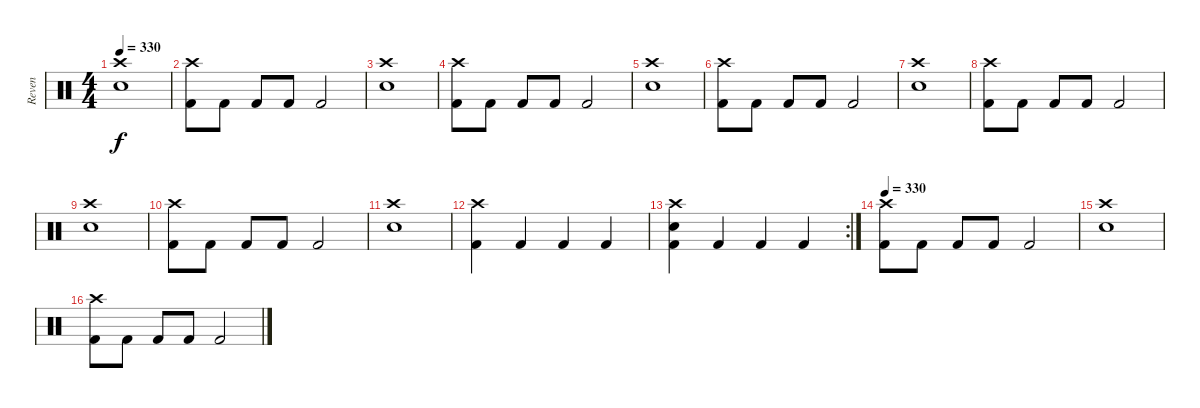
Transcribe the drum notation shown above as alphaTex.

\track ("Reven" "Reven") {instrument percussion}
\staff {score}
\articulation defaults
\ts (4 4)
\tempo 330
\clef neutral
\ks c
("Crash high (hit)" "Electric Snare (hit)").1{dy f} |
("Crash high (hit)" "Kick (hit) 2").8 "Kick (hit) 2".8 "Kick (hit) 2".8 "Kick (hit) 2".8 "Kick (hit) 2".2 |
("Crash high (hit)" "Electric Snare (hit)").1 |
("Crash high (hit)" "Kick (hit) 2").8 "Kick (hit) 2".8 "Kick (hit) 2".8 "Kick (hit) 2".8 "Kick (hit) 2".2 |
("Crash high (hit)" "Electric Snare (hit)").1 |
("Crash high (hit)" "Kick (hit) 2").8 "Kick (hit) 2".8 "Kick (hit) 2".8 "Kick (hit) 2".8 "Kick (hit) 2".2 |
("Crash high (hit)" "Electric Snare (hit)").1 |
("Crash high (hit)" "Kick (hit) 2").8 "Kick (hit) 2".8 "Kick (hit) 2".8 "Kick (hit) 2".8 "Kick (hit) 2".2 |
("Crash high (hit)" "Electric Snare (hit)").1 |
("Crash high (hit)" "Kick (hit) 2").8 "Kick (hit) 2".8 "Kick (hit) 2".8 "Kick (hit) 2".8 "Kick (hit) 2".2 |
("Crash high (hit)" "Electric Snare (hit)").1 |
("Crash high (hit)" "Kick (hit) 2").4 "Kick (hit) 2".4 "Kick (hit) 2".4 "Kick (hit) 2".4 |
\rc 2
("Crash high (hit)" "Electric Snare (hit)" "Kick (hit) 2").4 "Kick (hit) 2".4 "Kick (hit) 2".4 "Kick (hit) 2".4 |
\tempo 330
("Crash high (hit)" "Kick (hit) 2").8 "Kick (hit) 2".8 "Kick (hit) 2".8 "Kick (hit) 2".8 "Kick (hit) 2".2 |
("Crash high (hit)" "Electric Snare (hit)").1 |
("Crash high (hit)" "Kick (hit) 2").8 "Kick (hit) 2".8 "Kick (hit) 2".8 "Kick (hit) 2".8 "Kick (hit) 2".2
